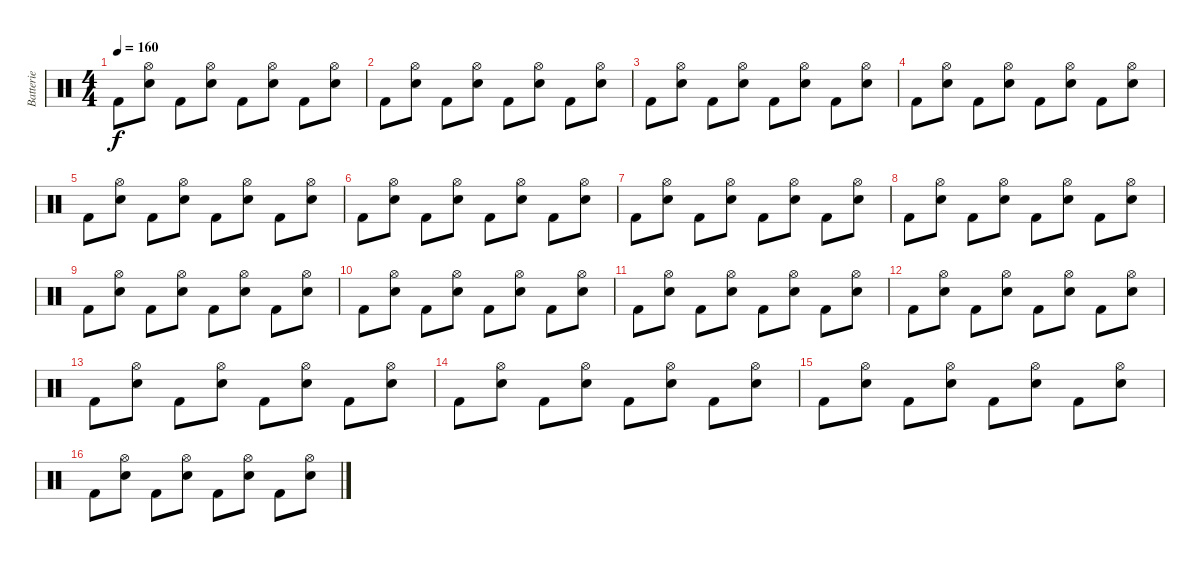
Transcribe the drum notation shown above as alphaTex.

\track ("Batterie" "Batterie") {instrument percussion}
\staff {score}
\articulation defaults
\ts (4 4)
\tempo 160
\clef neutral
\ks c "Kick (hit) 2".8{dy f}
("Electric Snare (hit)" "Hi-Hat (open)").8 "Kick (hit) 2".8 ("Electric Snare (hit)" "Hi-Hat (open)").8 "Kick (hit) 2".8 ("Electric Snare (hit)" "Hi-Hat (open)").8 "Kick (hit) 2".8 ("Electric Snare (hit)" "Hi-Hat (open)").8 |
"Kick (hit) 2".8 ("Electric Snare (hit)" "Hi-Hat (open)").8 "Kick (hit) 2".8 ("Electric Snare (hit)" "Hi-Hat (open)").8 "Kick (hit) 2".8 ("Electric Snare (hit)" "Hi-Hat (open)").8 "Kick (hit) 2".8 ("Electric Snare (hit)" "Hi-Hat (open)").8 |
"Kick (hit) 2".8 ("Electric Snare (hit)" "Hi-Hat (open)").8 "Kick (hit) 2".8 ("Electric Snare (hit)" "Hi-Hat (open)").8 "Kick (hit) 2".8 ("Electric Snare (hit)" "Hi-Hat (open)").8 "Kick (hit) 2".8 ("Electric Snare (hit)" "Hi-Hat (open)").8 |
"Kick (hit) 2".8 ("Electric Snare (hit)" "Hi-Hat (open)").8 "Kick (hit) 2".8 ("Electric Snare (hit)" "Hi-Hat (open)").8 "Kick (hit) 2".8 ("Electric Snare (hit)" "Hi-Hat (open)").8 "Kick (hit) 2".8 ("Electric Snare (hit)" "Hi-Hat (open)").8 |
"Kick (hit) 2".8 ("Electric Snare (hit)" "Hi-Hat (open)").8 "Kick (hit) 2".8 ("Electric Snare (hit)" "Hi-Hat (open)").8 "Kick (hit) 2".8 ("Electric Snare (hit)" "Hi-Hat (open)").8 "Kick (hit) 2".8 ("Electric Snare (hit)" "Hi-Hat (open)").8 |
"Kick (hit) 2".8 ("Electric Snare (hit)" "Hi-Hat (open)").8 "Kick (hit) 2".8 ("Electric Snare (hit)" "Hi-Hat (open)").8 "Kick (hit) 2".8 ("Electric Snare (hit)" "Hi-Hat (open)").8 "Kick (hit) 2".8 ("Electric Snare (hit)" "Hi-Hat (open)").8 |
"Kick (hit) 2".8 ("Electric Snare (hit)" "Hi-Hat (open)").8 "Kick (hit) 2".8 ("Electric Snare (hit)" "Hi-Hat (open)").8 "Kick (hit) 2".8 ("Electric Snare (hit)" "Hi-Hat (open)").8 "Kick (hit) 2".8 ("Electric Snare (hit)" "Hi-Hat (open)").8 |
"Kick (hit) 2".8 ("Electric Snare (hit)" "Hi-Hat (open)").8 "Kick (hit) 2".8 ("Electric Snare (hit)" "Hi-Hat (open)").8 "Kick (hit) 2".8 ("Electric Snare (hit)" "Hi-Hat (open)").8 "Kick (hit) 2".8 ("Electric Snare (hit)" "Hi-Hat (open)").8 |
"Kick (hit) 2".8 ("Electric Snare (hit)" "Hi-Hat (open)").8 "Kick (hit) 2".8 ("Electric Snare (hit)" "Hi-Hat (open)").8 "Kick (hit) 2".8 ("Electric Snare (hit)" "Hi-Hat (open)").8 "Kick (hit) 2".8 ("Electric Snare (hit)" "Hi-Hat (open)").8 |
"Kick (hit) 2".8 ("Electric Snare (hit)" "Hi-Hat (open)").8 "Kick (hit) 2".8 ("Electric Snare (hit)" "Hi-Hat (open)").8 "Kick (hit) 2".8 ("Electric Snare (hit)" "Hi-Hat (open)").8 "Kick (hit) 2".8 ("Electric Snare (hit)" "Hi-Hat (open)").8 |
"Kick (hit) 2".8 ("Electric Snare (hit)" "Hi-Hat (open)").8 "Kick (hit) 2".8 ("Electric Snare (hit)" "Hi-Hat (open)").8 "Kick (hit) 2".8 ("Electric Snare (hit)" "Hi-Hat (open)").8 "Kick (hit) 2".8 ("Electric Snare (hit)" "Hi-Hat (open)").8 |
"Kick (hit) 2".8 ("Electric Snare (hit)" "Hi-Hat (open)").8 "Kick (hit) 2".8 ("Electric Snare (hit)" "Hi-Hat (open)").8 "Kick (hit) 2".8 ("Electric Snare (hit)" "Hi-Hat (open)").8 "Kick (hit) 2".8 ("Electric Snare (hit)" "Hi-Hat (open)").8 |
"Kick (hit) 2".8 ("Electric Snare (hit)" "Hi-Hat (open)").8 "Kick (hit) 2".8 ("Electric Snare (hit)" "Hi-Hat (open)").8 "Kick (hit) 2".8 ("Electric Snare (hit)" "Hi-Hat (open)").8 "Kick (hit) 2".8 ("Electric Snare (hit)" "Hi-Hat (open)").8 |
"Kick (hit) 2".8 ("Electric Snare (hit)" "Hi-Hat (open)").8 "Kick (hit) 2".8 ("Electric Snare (hit)" "Hi-Hat (open)").8 "Kick (hit) 2".8 ("Electric Snare (hit)" "Hi-Hat (open)").8 "Kick (hit) 2".8 ("Electric Snare (hit)" "Hi-Hat (open)").8 |
"Kick (hit) 2".8 ("Electric Snare (hit)" "Hi-Hat (open)").8 "Kick (hit) 2".8 ("Electric Snare (hit)" "Hi-Hat (open)").8 "Kick (hit) 2".8 ("Electric Snare (hit)" "Hi-Hat (open)").8 "Kick (hit) 2".8 ("Electric Snare (hit)" "Hi-Hat (open)").8 |
"Kick (hit) 2".8 ("Electric Snare (hit)" "Hi-Hat (open)").8 "Kick (hit) 2".8 ("Electric Snare (hit)" "Hi-Hat (open)").8 "Kick (hit) 2".8 ("Electric Snare (hit)" "Hi-Hat (open)").8 "Kick (hit) 2".8 ("Electric Snare (hit)" "Hi-Hat (open)").8
